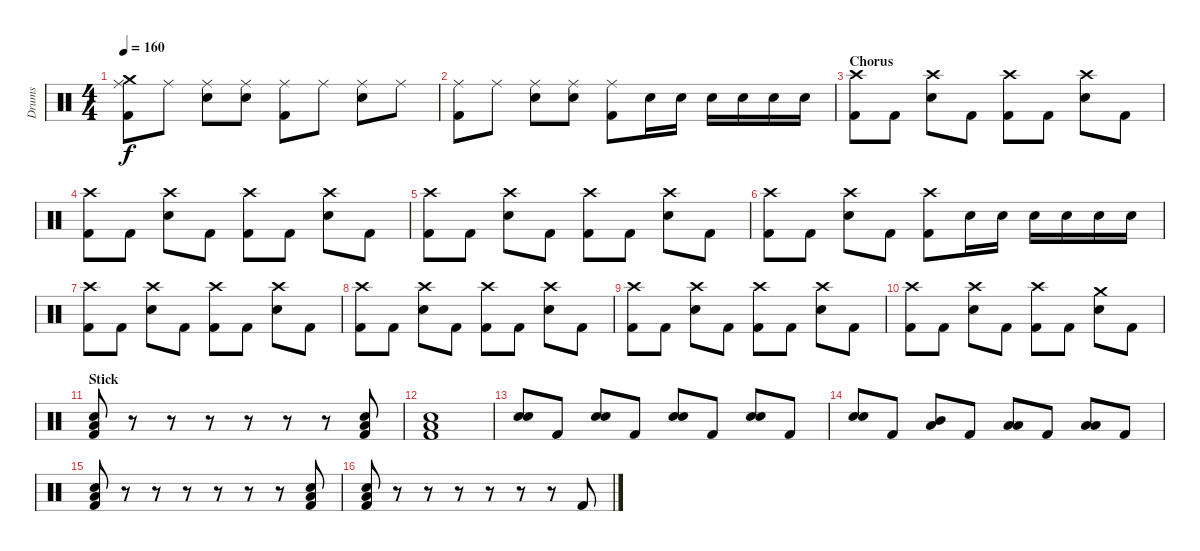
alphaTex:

\track ("Drums" "Drums") {instrument percussion}
\staff {score}
\articulation defaults
\ts (4 4)
\tempo 160
\clef neutral
\ks c
("Ride (middle)" "Crash medium (hit)" "Kick (hit) 2").8{dy f} "Ride (middle)".8 ("Ride (middle)" "Snare (hit) 2").8 ("Ride (middle)" "Snare (hit) 2").8 ("Ride (middle)" "Kick (hit) 2").8 "Ride (middle)".8 ("Ride (middle)" "Snare (hit) 2").8 "Ride (middle)".8 |
("Ride (middle)" "Kick (hit) 2").8 "Ride (middle)".8 ("Ride (middle)" "Snare (hit) 2").8 ("Ride (middle)" "Snare (hit) 2").8 ("Ride (middle)" "Kick (hit) 2").8 "Snare (hit) 2".16 "Snare (hit) 2".16 "Snare (hit) 2".16 "Snare (hit) 2".16 "Snare (hit) 2".16 "Snare (hit) 2".16 |
\section ("" "Chorus")
("Crash high (hit)" "Kick (hit) 2").8 "Kick (hit) 2".8 ("Crash high (hit)" "Snare (hit) 2").8 "Kick (hit) 2".8 ("Crash high (hit)" "Kick (hit) 2").8 "Kick (hit) 2".8 ("Crash high (hit)" "Snare (hit) 2").8 "Kick (hit) 2".8 |
("Crash high (hit)" "Kick (hit) 2").8 "Kick (hit) 2".8 ("Crash high (hit)" "Snare (hit) 2").8 "Kick (hit) 2".8 ("Crash high (hit)" "Kick (hit) 2").8 "Kick (hit) 2".8 ("Crash high (hit)" "Snare (hit) 2").8 "Kick (hit) 2".8 |
("Crash high (hit)" "Kick (hit) 2").8 "Kick (hit) 2".8 ("Crash high (hit)" "Snare (hit) 2").8 "Kick (hit) 2".8 ("Crash high (hit)" "Kick (hit) 2").8 "Kick (hit) 2".8 ("Crash high (hit)" "Snare (hit) 2").8 "Kick (hit) 2".8 |
("Crash high (hit)" "Kick (hit) 2").8 "Kick (hit) 2".8 ("Crash high (hit)" "Snare (hit) 2").8 "Kick (hit) 2".8 ("Crash high (hit)" "Kick (hit) 2").8 "Snare (hit) 2".16 "Snare (hit) 2".16 "Snare (hit) 2".16 "Snare (hit) 2".16 "Snare (hit) 2".16 "Snare (hit) 2".16 |
("Crash high (hit)" "Kick (hit) 2").8 "Kick (hit) 2".8 ("Crash high (hit)" "Snare (hit) 2").8 "Kick (hit) 2".8 ("Crash high (hit)" "Kick (hit) 2").8 "Kick (hit) 2".8 ("Crash high (hit)" "Snare (hit) 2").8 "Kick (hit) 2".8 |
("Crash high (hit)" "Kick (hit) 2").8 "Kick (hit) 2".8 ("Crash high (hit)" "Snare (hit) 2").8 "Kick (hit) 2".8 ("Crash high (hit)" "Kick (hit) 2").8 "Kick (hit) 2".8 ("Crash high (hit)" "Snare (hit) 2").8 "Kick (hit) 2".8 |
("Crash high (hit)" "Kick (hit) 2").8 "Kick (hit) 2".8 ("Crash high (hit)" "Snare (hit) 2").8 "Kick (hit) 2".8 ("Crash high (hit)" "Kick (hit) 2").8 "Kick (hit) 2".8 ("Crash high (hit)" "Snare (hit) 2").8 "Kick (hit) 2".8 |
("Crash high (hit)" "Kick (hit) 2").8 "Kick (hit) 2".8 ("Crash high (hit)" "Snare (hit) 2").8 "Kick (hit) 2".8 ("Crash high (hit)" "Kick (hit) 2").8 "Kick (hit) 2".8 ("Crash medium (hit)" "Snare (hit) 2").8 "Kick (hit) 2".8 |
\section ("" "Stick")
("Snare (hit) 2" "Low Floor Tom (hit)" "Kick (hit) 2").8 r.8 r.8 r.8 r.8 r.8 r.8 ("Snare (hit) 2" "Low Floor Tom (hit)" "Kick (hit) 2").8 |
("Snare (hit) 2" "Low Floor Tom (hit)" "Kick (hit) 2").1 |
("Snare (hit) 2" "Snare (hit) 2").8 "Kick (hit) 2".8 ("Snare (hit) 2" "Snare (hit) 2").8 "Kick (hit) 2".8 ("Snare (hit) 2" "Snare (hit) 2").8 "Kick (hit) 2".8 ("Snare (hit) 2" "Snare (hit) 2").8 "Kick (hit) 2".8 |
("Snare (hit) 2" "Snare (hit) 2").8 "Kick (hit) 2".8 ("Mid Tom (hit)" "Low Tom (hit)").8 "Kick (hit) 2".8 ("Low Tom (hit)" "Low Tom (hit)").8 "Kick (hit) 2".8 ("Low Floor Tom (hit)" "Low Tom (hit)").8 "Kick (hit) 2".8 |
("Snare (hit) 2" "Low Floor Tom (hit)" "Kick (hit) 2").8 r.8 r.8 r.8 r.8 r.8 r.8 ("Snare (hit) 2" "Low Floor Tom (hit)" "Kick (hit) 2").8 |
("Snare (hit) 2" "Low Floor Tom (hit)" "Kick (hit) 2").8 r.8 r.8 r.8 r.8 r.8 r.8 "Kick (hit) 2".8
